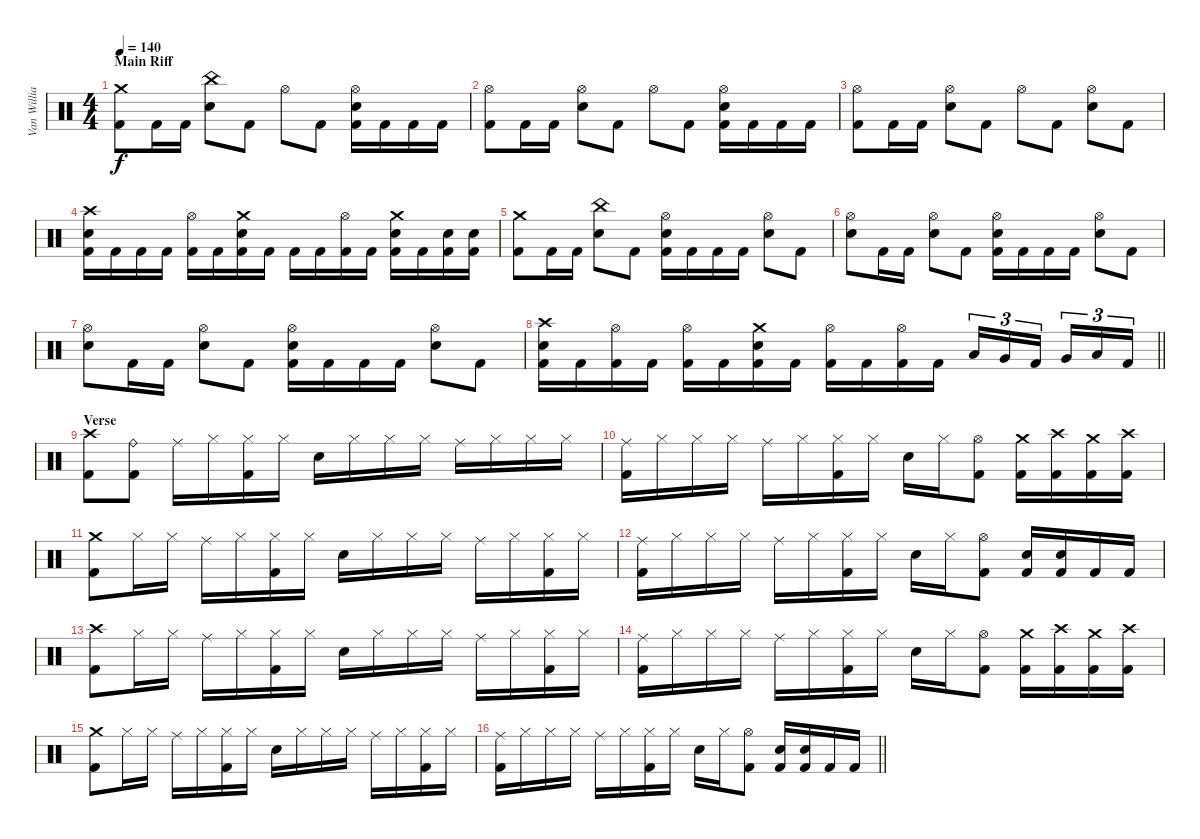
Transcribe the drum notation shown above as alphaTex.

\track ("Van Williams" "Van Willia") {instrument percussion}
\staff {score}
\articulation defaults
\ts (4 4)
\section ("" "Main Riff")
\tempo 140
\clef neutral
\ks c
("Crash medium (hit)" "Kick (hit) 2").8{dy f} "Kick (hit) 2".16 "Kick (hit) 2".16 ("China (hit)" "Electric Snare (hit)").8 "Kick (hit) 2".8 "Hi-Hat (open)".8 "Kick (hit) 2".8 ("Hi-Hat (open)" "Electric Snare (hit)" "Kick (hit) 2").16 "Kick (hit) 2".16 "Kick (hit) 2".16 "Kick (hit) 2".16 |
("Hi-Hat (open)" "Kick (hit) 2").8 "Kick (hit) 2".16 "Kick (hit) 2".16 ("Hi-Hat (open)" "Electric Snare (hit)").8 "Kick (hit) 2".8 "Hi-Hat (open)".8 "Kick (hit) 2".8 ("Hi-Hat (open)" "Electric Snare (hit)" "Kick (hit) 2").16 "Kick (hit) 2".16 "Kick (hit) 2".16 "Kick (hit) 2".16 |
("Hi-Hat (open)" "Kick (hit) 2").8 "Kick (hit) 2".16 "Kick (hit) 2".16 ("Hi-Hat (open)" "Electric Snare (hit)").8 "Kick (hit) 2".8 "Hi-Hat (open)".8 "Kick (hit) 2".8 ("Hi-Hat (open)" "Electric Snare (hit)").8 "Kick (hit) 2".8 |
("Crash high (hit)" "Electric Snare (hit)" "Kick (hit) 2").16 "Kick (hit) 2".16 "Kick (hit) 2".16 "Kick (hit) 2".16 ("Hi-Hat (open)" "Kick (hit) 2").16 "Kick (hit) 2".16 ("Crash medium (hit)" "Electric Snare (hit)" "Kick (hit) 2").16 "Kick (hit) 2".16 "Kick (hit) 2".16 "Kick (hit) 2".16 ("Hi-Hat (open)" "Kick (hit) 2").16 "Kick (hit) 2".16 ("Crash medium (hit)" "Electric Snare (hit)" "Kick (hit) 2").16 "Kick (hit) 2".16 ("Electric Snare (hit)" "Kick (hit) 2").16 ("Electric Snare (hit)" "Kick (hit) 2").16 |
("Crash medium (hit)" "Kick (hit) 2").8 "Kick (hit) 2".16 "Kick (hit) 2".16 ("China (hit)" "Electric Snare (hit)").8 "Kick (hit) 2".8 ("Hi-Hat (open)" "Electric Snare (hit)" "Kick (hit) 2").16 "Kick (hit) 2".16 "Kick (hit) 2".16 "Kick (hit) 2".16 ("Hi-Hat (open)" "Electric Snare (hit)").8 "Kick (hit) 2".8 |
("Hi-Hat (open)" "Electric Snare (hit)").8 "Kick (hit) 2".16 "Kick (hit) 2".16 ("Hi-Hat (open)" "Electric Snare (hit)").8 "Kick (hit) 2".8 ("Hi-Hat (open)" "Electric Snare (hit)" "Kick (hit) 2").16 "Kick (hit) 2".16 "Kick (hit) 2".16 "Kick (hit) 2".16 ("Hi-Hat (open)" "Electric Snare (hit)").8 "Kick (hit) 2".8 |
("Hi-Hat (open)" "Electric Snare (hit)").8 "Kick (hit) 2".16 "Kick (hit) 2".16 ("Hi-Hat (open)" "Electric Snare (hit)").8 "Kick (hit) 2".8 ("Hi-Hat (open)" "Electric Snare (hit)" "Kick (hit) 2").16 "Kick (hit) 2".16 "Kick (hit) 2".16 "Kick (hit) 2".16 ("Hi-Hat (open)" "Electric Snare (hit)").8 "Kick (hit) 2".8 |
\barLineRight lightlight
("Crash high (hit)" "Electric Snare (hit)" "Kick (hit) 2").16 "Kick (hit) 2".16 ("Hi-Hat (open)" "Kick (hit) 2").16 "Kick (hit) 2".16 ("Hi-Hat (open)" "Kick (hit) 2").16 "Kick (hit) 2".16 ("Crash medium (hit)" "Electric Snare (hit)" "Kick (hit) 2").16 "Kick (hit) 2".16 ("Hi-Hat (open)" "Kick (hit) 2").16 "Kick (hit) 2".16 ("Hi-Hat (open)" "Kick (hit) 2").16 "Kick (hit) 2".16 "Low Tom (hit)".16{tu (3 2)} "Very Low Tom (hit)".16{tu (3 2)} "Kick (hit) 2".16{tu (3 2) beam splitsecondary} "Very Low Tom (hit)".16{tu (3 2)} "Low Floor Tom (hit)".16{tu (3 2)} "Kick (hit) 2".16{tu (3 2)} |
\section ("" "Verse")
("Crash high (hit)" "Kick (hit) 2").8 ("Ride (bell)" "Kick (hit) 2").8 "Ride (middle)".16 "Hi-Hat (closed)".16 ("Hi-Hat (closed)" "Kick (hit) 2").16 "Hi-Hat (closed)".16 "Electric Snare (hit)".16 "Hi-Hat (closed)".16 "Hi-Hat (closed)".16 "Hi-Hat (closed)".16 "Ride (middle)".16 "Hi-Hat (closed)".16 "Hi-Hat (closed)".16 "Hi-Hat (closed)".16 |
("Ride (middle)" "Kick (hit) 2").16 "Hi-Hat (closed)".16 "Hi-Hat (closed)".16 "Hi-Hat (closed)".16 "Ride (middle)".16 "Hi-Hat (closed)".16 ("Hi-Hat (closed)" "Kick (hit) 2").16 "Hi-Hat (closed)".16 "Electric Snare (hit)".16 "Hi-Hat (closed)".16 ("Hi-Hat (open)" "Kick (hit) 2").8 ("Crash medium (hit)" "Kick (hit) 2").16 ("Crash high (hit)" "Kick (hit) 2").16 ("Crash medium (hit)" "Kick (hit) 2").16 ("Crash high (hit)" "Kick (hit) 2").16 |
("Crash medium (hit)" "Kick (hit) 2").8 "Hi-Hat (closed)".16 "Hi-Hat (closed)".16 "Ride (middle)".16 "Hi-Hat (closed)".16 ("Hi-Hat (closed)" "Kick (hit) 2").16 "Hi-Hat (closed)".16 "Electric Snare (hit)".16 "Hi-Hat (closed)".16 "Hi-Hat (closed)".16 "Hi-Hat (closed)".16 "Ride (middle)".16 "Hi-Hat (closed)".16 ("Hi-Hat (closed)" "Kick (hit) 2").16 "Hi-Hat (closed)".16 |
("Ride (middle)" "Kick (hit) 2").16 "Hi-Hat (closed)".16 "Hi-Hat (closed)".16 "Hi-Hat (closed)".16 "Ride (middle)".16 "Hi-Hat (closed)".16 ("Hi-Hat (closed)" "Kick (hit) 2").16 "Hi-Hat (closed)".16 "Electric Snare (hit)".16 "Hi-Hat (closed)".16 ("Hi-Hat (open)" "Kick (hit) 2").8 ("Electric Snare (hit)" "Kick (hit) 2").16 ("Electric Snare (hit)" "Kick (hit) 2").16 "Kick (hit) 2".16 "Kick (hit) 2".16 |
("Crash high (hit)" "Kick (hit) 2").8 "Hi-Hat (closed)".16 "Hi-Hat (closed)".16 "Ride (middle)".16 "Hi-Hat (closed)".16 ("Hi-Hat (closed)" "Kick (hit) 2").16 "Hi-Hat (closed)".16 "Electric Snare (hit)".16 "Hi-Hat (closed)".16 "Hi-Hat (closed)".16 "Hi-Hat (closed)".16 "Ride (middle)".16 "Hi-Hat (closed)".16 ("Hi-Hat (closed)" "Kick (hit) 2").16 "Hi-Hat (closed)".16 |
("Ride (middle)" "Kick (hit) 2").16 "Hi-Hat (closed)".16 "Hi-Hat (closed)".16 "Hi-Hat (closed)".16 "Ride (middle)".16 "Hi-Hat (closed)".16 ("Hi-Hat (closed)" "Kick (hit) 2").16 "Hi-Hat (closed)".16 "Electric Snare (hit)".16 "Hi-Hat (closed)".16 ("Hi-Hat (open)" "Kick (hit) 2").8 ("Crash medium (hit)" "Kick (hit) 2").16 ("Crash high (hit)" "Kick (hit) 2").16 ("Crash medium (hit)" "Kick (hit) 2").16 ("Crash high (hit)" "Kick (hit) 2").16 |
("Crash medium (hit)" "Kick (hit) 2").8 "Hi-Hat (closed)".16 "Hi-Hat (closed)".16 "Ride (middle)".16 "Hi-Hat (closed)".16 ("Hi-Hat (closed)" "Kick (hit) 2").16 "Hi-Hat (closed)".16 "Electric Snare (hit)".16 "Hi-Hat (closed)".16 "Hi-Hat (closed)".16 "Hi-Hat (closed)".16 "Ride (middle)".16 "Hi-Hat (closed)".16 ("Hi-Hat (closed)" "Kick (hit) 2").16 "Hi-Hat (closed)".16 |
\barLineRight lightlight
("Ride (middle)" "Kick (hit) 2").16 "Hi-Hat (closed)".16 "Hi-Hat (closed)".16 "Hi-Hat (closed)".16 "Ride (middle)".16 "Hi-Hat (closed)".16 ("Hi-Hat (closed)" "Kick (hit) 2").16 "Hi-Hat (closed)".16 "Electric Snare (hit)".16 "Hi-Hat (closed)".16 ("Hi-Hat (open)" "Kick (hit) 2").8 ("Electric Snare (hit)" "Kick (hit) 2").16 ("Electric Snare (hit)" "Kick (hit) 2").16 "Kick (hit) 2".16 "Kick (hit) 2".16
